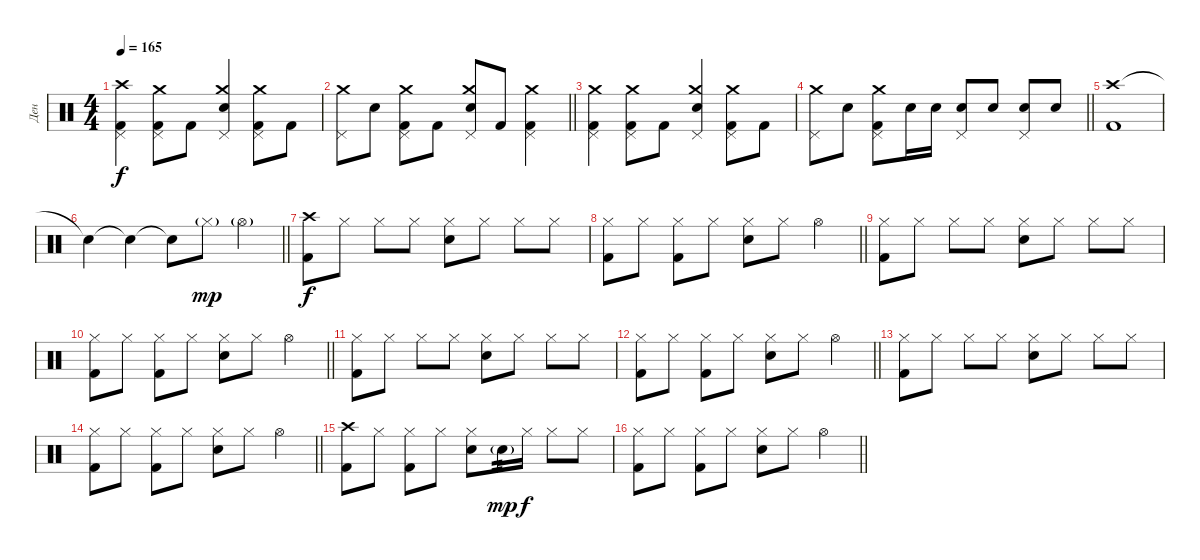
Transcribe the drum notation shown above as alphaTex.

\track ("Ден" "Ден") {instrument percussion}
\staff {score}
\articulation defaults
\ts (4 4)
\tempo 165
\clef neutral
\ks c
("Crash high (hit)" "Kick (hit) 2" "Pedal Hi-Hat (hit)").4{dy f} ("Crash medium (hit)" "Kick (hit) 2" "Pedal Hi-Hat (hit)").8 "Kick (hit) 2".8 ("Crash medium (hit)" "Snare (hit) 2" "Pedal Hi-Hat (hit)").4 ("Crash medium (hit)" "Kick (hit) 2" "Pedal Hi-Hat (hit)").8 "Kick (hit) 2".8 |
\barLineRight lightlight
("Crash medium (hit)" "Pedal Hi-Hat (hit)").8 "Snare (hit) 2".8 ("Crash medium (hit)" "Kick (hit) 2" "Pedal Hi-Hat (hit)").8 "Kick (hit) 2".8 ("Crash medium (hit)" "Snare (hit) 2" "Pedal Hi-Hat (hit)").8 "Kick (hit) 2".8 ("Crash medium (hit)" "Kick (hit) 2" "Pedal Hi-Hat (hit)").4 |
("Crash medium (hit)" "Kick (hit) 2" "Pedal Hi-Hat (hit)").4 ("Crash medium (hit)" "Kick (hit) 2" "Pedal Hi-Hat (hit)").8 "Kick (hit) 2".8 ("Crash medium (hit)" "Snare (hit) 2" "Pedal Hi-Hat (hit)").4 ("Crash medium (hit)" "Kick (hit) 2" "Pedal Hi-Hat (hit)").8 "Kick (hit) 2".8 |
\barLineRight lightlight
("Crash medium (hit)" "Pedal Hi-Hat (hit)").8 "Snare (hit) 2".8 ("Crash medium (hit)" "Kick (hit) 2" "Pedal Hi-Hat (hit)").8 "Snare (hit) 2".16 "Snare (hit) 2".16 ("Snare (hit) 2" "Pedal Hi-Hat (hit)").8 "Snare (hit) 2".8 ("Snare (hit) 2" "Pedal Hi-Hat (hit)").8 "Snare (hit) 2".8 |
("Crash high (hit)" "Kick (hit) 2").1 |
\barLineRight lightlight "Snare (hit)"{t}.4 "Snare (hit)"{t}.4 "Snare (hit)"{t}.8 "Hi-Hat (closed)"{g}.8{dy mp} "Hi-Hat (open)"{g}.4
|
("Crash high (hit)" "Kick (hit) 2").8{dy f} "Hi-Hat (closed)".8 "Hi-Hat (closed)".8 "Hi-Hat (closed)".8 ("Hi-Hat (closed)" "Snare (hit) 2").8 "Hi-Hat (closed)".8 "Hi-Hat (closed)".8 "Hi-Hat (closed)".8 |
\barLineRight lightlight
("Hi-Hat (closed)" "Kick (hit) 2").8 "Hi-Hat (closed)".8 ("Hi-Hat (closed)" "Kick (hit) 2").8 "Hi-Hat (closed)".8 ("Hi-Hat (closed)" "Snare (hit) 2").8 "Hi-Hat (closed)".8 "Hi-Hat (open)".4 |
("Hi-Hat (closed)" "Kick (hit) 2").8 "Hi-Hat (closed)".8 "Hi-Hat (closed)".8 "Hi-Hat (closed)".8 ("Hi-Hat (closed)" "Snare (hit) 2").8 "Hi-Hat (closed)".8 "Hi-Hat (closed)".8 "Hi-Hat (closed)".8 |
\barLineRight lightlight
("Hi-Hat (closed)" "Kick (hit) 2").8 "Hi-Hat (closed)".8 ("Hi-Hat (closed)" "Kick (hit) 2").8 "Hi-Hat (closed)".8 ("Hi-Hat (closed)" "Snare (hit) 2").8 "Hi-Hat (closed)".8 "Hi-Hat (open)".4 |
("Hi-Hat (closed)" "Kick (hit) 2").8 "Hi-Hat (closed)".8 "Hi-Hat (closed)".8 "Hi-Hat (closed)".8 ("Hi-Hat (closed)" "Snare (hit) 2").8 "Hi-Hat (closed)".8 "Hi-Hat (closed)".8 "Hi-Hat (closed)".8 |
\barLineRight lightlight
("Hi-Hat (closed)" "Kick (hit) 2").8 "Hi-Hat (closed)".8 ("Hi-Hat (closed)" "Kick (hit) 2").8 "Hi-Hat (closed)".8 ("Hi-Hat (closed)" "Snare (hit) 2").8 "Hi-Hat (closed)".8 "Hi-Hat (open)".4 |
("Hi-Hat (closed)" "Kick (hit) 2").8 "Hi-Hat (closed)".8 "Hi-Hat (closed)".8 "Hi-Hat (closed)".8 ("Hi-Hat (closed)" "Snare (hit) 2").8 "Hi-Hat (closed)".8 "Hi-Hat (closed)".8 "Hi-Hat (closed)".8 |
\barLineRight lightlight
("Hi-Hat (closed)" "Kick (hit) 2").8 "Hi-Hat (closed)".8 ("Hi-Hat (closed)" "Kick (hit) 2").8 "Hi-Hat (closed)".8 ("Hi-Hat (closed)" "Snare (hit) 2").8 "Hi-Hat (closed)".8 "Hi-Hat (open)".4 |
("Crash high (hit)" "Kick (hit) 2").8 "Hi-Hat (closed)".8 ("Hi-Hat (closed)" "Kick (hit) 2").8 "Hi-Hat (closed)".8 ("Hi-Hat (closed)" "Snare (hit) 2").8 "Snare (hit) 2"{g}.16{tp 2 dy mp} "Hi-Hat (closed)".16{dy f} "Hi-Hat (closed)".8 "Hi-Hat (closed)".8 |
\barLineRight lightlight
("Hi-Hat (closed)" "Kick (hit) 2").8 "Hi-Hat (closed)".8 ("Hi-Hat (closed)" "Kick (hit) 2").8 "Hi-Hat (closed)".8 ("Hi-Hat (closed)" "Snare (hit) 2").8 "Hi-Hat (closed)".8 "Hi-Hat (open)".4
